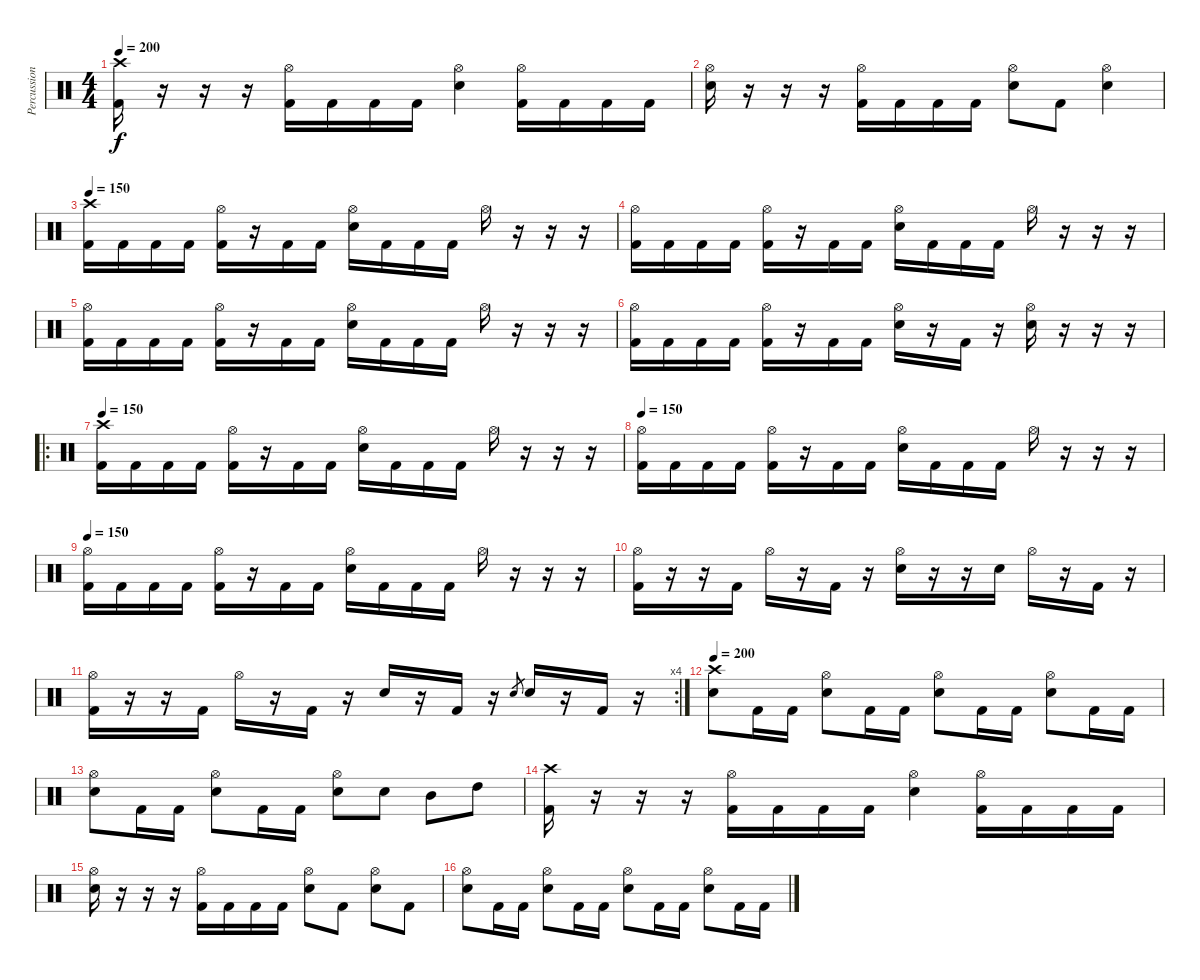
\track ("Percussions" "Percussion") {instrument percussion}
\staff {score}
\articulation defaults
\ts (4 4)
\tempo 200
\clef neutral
\ks c
("Kick (hit) 2" "Crash high (hit)").16{dy f} r.16 r.16 r.16 ("Kick (hit) 2" "Hi-Hat (open)").16 "Kick (hit) 2".16 "Kick (hit) 2".16 "Kick (hit) 2".16 ("Electric Snare (hit)" "Hi-Hat (open)").4 ("Kick (hit) 2" "Hi-Hat (open)").16 "Kick (hit) 2".16 "Kick (hit) 2".16 "Kick (hit) 2".16 |
("Electric Snare (hit)" "Hi-Hat (open)").16 r.16 r.16 r.16 ("Kick (hit) 2" "Hi-Hat (open)").16 "Kick (hit) 2".16 "Kick (hit) 2".16 "Kick (hit) 2".16 ("Electric Snare (hit)" "Hi-Hat (open)").8 "Kick (hit) 2".8 ("Electric Snare (hit)" "Hi-Hat (open)").4 |
\tempo 150
("Kick (hit) 2" "Crash high (hit)").16 "Kick (hit) 2".16 "Kick (hit) 2".16 "Kick (hit) 2".16 ("Kick (hit) 2" "Hi-Hat (open)").16 r.16 "Kick (hit) 2".16 "Kick (hit) 2".16 ("Electric Snare (hit)" "Hi-Hat (open)").16 "Kick (hit) 2".16 "Kick (hit) 2".16 "Kick (hit) 2".16 "Hi-Hat (open)".16 r.16 r.16 r.16 |
("Kick (hit) 2" "Hi-Hat (open)").16 "Kick (hit) 2".16 "Kick (hit) 2".16 "Kick (hit) 2".16 ("Kick (hit) 2" "Hi-Hat (open)").16 r.16 "Kick (hit) 2".16 "Kick (hit) 2".16 ("Electric Snare (hit)" "Hi-Hat (open)").16 "Kick (hit) 2".16 "Kick (hit) 2".16 "Kick (hit) 2".16 "Hi-Hat (open)".16 r.16 r.16 r.16 |
("Kick (hit) 2" "Hi-Hat (open)").16 "Kick (hit) 2".16 "Kick (hit) 2".16 "Kick (hit) 2".16 ("Kick (hit) 2" "Hi-Hat (open)").16 r.16 "Kick (hit) 2".16 "Kick (hit) 2".16 ("Electric Snare (hit)" "Hi-Hat (open)").16 "Kick (hit) 2".16 "Kick (hit) 2".16 "Kick (hit) 2".16 "Hi-Hat (open)".16 r.16 r.16 r.16 |
("Kick (hit) 2" "Hi-Hat (open)").16 "Kick (hit) 2".16 "Kick (hit) 2".16 "Kick (hit) 2".16 ("Kick (hit) 2" "Hi-Hat (open)").16 r.16 "Kick (hit) 2".16 "Kick (hit) 2".16 ("Electric Snare (hit)" "Hi-Hat (open)").16 r.16 "Kick (hit) 2".16 r.16 ("Electric Snare (hit)" "Hi-Hat (open)").16 r.16 r.16 r.16 |
\ro
\tempo 150
("Kick (hit) 2" "Crash high (hit)").16 "Kick (hit) 2".16 "Kick (hit) 2".16 "Kick (hit) 2".16 ("Kick (hit) 2" "Hi-Hat (open)").16 r.16 "Kick (hit) 2".16 "Kick (hit) 2".16 ("Electric Snare (hit)" "Hi-Hat (open)").16 "Kick (hit) 2".16 "Kick (hit) 2".16 "Kick (hit) 2".16 "Hi-Hat (open)".16 r.16 r.16 r.16 |
\tempo 150
("Kick (hit) 2" "Hi-Hat (open)").16 "Kick (hit) 2".16 "Kick (hit) 2".16 "Kick (hit) 2".16 ("Kick (hit) 2" "Hi-Hat (open)").16 r.16 "Kick (hit) 2".16 "Kick (hit) 2".16 ("Electric Snare (hit)" "Hi-Hat (open)").16 "Kick (hit) 2".16 "Kick (hit) 2".16 "Kick (hit) 2".16 "Hi-Hat (open)".16 r.16 r.16 r.16 |
\tempo 150
("Kick (hit) 2" "Hi-Hat (open)").16 "Kick (hit) 2".16 "Kick (hit) 2".16 "Kick (hit) 2".16 ("Kick (hit) 2" "Hi-Hat (open)").16 r.16 "Kick (hit) 2".16 "Kick (hit) 2".16 ("Electric Snare (hit)" "Hi-Hat (open)").16 "Kick (hit) 2".16 "Kick (hit) 2".16 "Kick (hit) 2".16 "Hi-Hat (open)".16 r.16 r.16 r.16 |
("Kick (hit) 2" "Hi-Hat (open)").16 r.16 r.16 "Kick (hit) 2".16 "Hi-Hat (open)".16 r.16 "Kick (hit) 2".16 r.16 ("Electric Snare (hit)" "Hi-Hat (open)").16 r.16 r.16 "Electric Snare (hit)".16 "Hi-Hat (open)".16 r.16 "Kick (hit) 2".16 r.16 |
\rc 4
("Kick (hit) 2" "Hi-Hat (open)").16 r.16 r.16 "Kick (hit) 2".16 "Hi-Hat (open)".16 r.16 "Kick (hit) 2".16 r.16 "Electric Snare (hit)".16 r.16 "Kick (hit) 2".16 r.16 "Electric Snare (hit)".8{gr} "Electric Snare (hit)".16 r.16 "Kick (hit) 2".16 r.16 |
\tempo 200
("Electric Snare (hit)" "Crash high (hit)").8 "Kick (hit) 2".16 "Kick (hit) 2".16 ("Electric Snare (hit)" "Hi-Hat (open)").8 "Kick (hit) 2".16 "Kick (hit) 2".16 ("Electric Snare (hit)" "Hi-Hat (open)").8 "Kick (hit) 2".16 "Kick (hit) 2".16 ("Electric Snare (hit)" "Hi-Hat (open)").8 "Kick (hit) 2".16 "Kick (hit) 2".16 |
("Electric Snare (hit)" "Hi-Hat (open)").8 "Kick (hit) 2".16 "Kick (hit) 2".16 ("Electric Snare (hit)" "Hi-Hat (open)").8 "Kick (hit) 2".16 "Kick (hit) 2".16 ("Electric Snare (hit)" "Hi-Hat (open)").8 "Electric Snare (hit)".8 "Mid Tom (hit)".8 "High Tom (hit)".8 |
("Kick (hit) 2" "Crash high (hit)").16 r.16 r.16 r.16 ("Kick (hit) 2" "Hi-Hat (open)").16 "Kick (hit) 2".16 "Kick (hit) 2".16 "Kick (hit) 2".16 ("Electric Snare (hit)" "Hi-Hat (open)").4 ("Kick (hit) 2" "Hi-Hat (open)").16 "Kick (hit) 2".16 "Kick (hit) 2".16 "Kick (hit) 2".16 |
("Electric Snare (hit)" "Hi-Hat (open)").16 r.16 r.16 r.16 ("Kick (hit) 2" "Hi-Hat (open)").16 "Kick (hit) 2".16 "Kick (hit) 2".16 "Kick (hit) 2".16 ("Electric Snare (hit)" "Hi-Hat (open)").8 "Kick (hit) 2".8 ("Electric Snare (hit)" "Hi-Hat (open)").8 "Kick (hit) 2".8 |
("Electric Snare (hit)" "Hi-Hat (open)").8 "Kick (hit) 2".16 "Kick (hit) 2".16 ("Electric Snare (hit)" "Hi-Hat (open)").8 "Kick (hit) 2".16 "Kick (hit) 2".16 ("Electric Snare (hit)" "Hi-Hat (open)").8 "Kick (hit) 2".16 "Kick (hit) 2".16 ("Electric Snare (hit)" "Hi-Hat (open)").8 "Kick (hit) 2".16 "Kick (hit) 2".16
